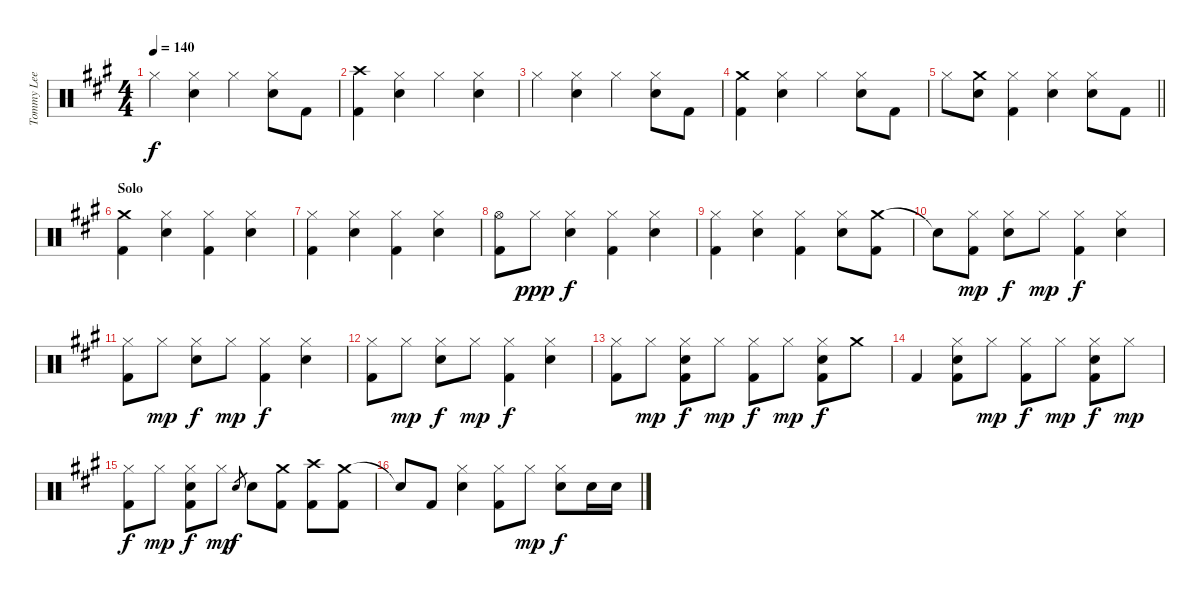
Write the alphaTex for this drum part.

\track ("Tommy Lee - Drums" "Tommy Lee ") {instrument percussion}
\staff {score}
\articulation defaults
\ts (4 4)
\tempo 140
\clef neutral
\ks a "Hi-Hat (closed)".4{dy f}
("Hi-Hat (closed)" "Snare (hit) 2").4 "Hi-Hat (closed)".4 ("Hi-Hat (closed)" "Snare (hit) 2").8 "Kick (hit) 2".8 |
("Crash high (hit)" "Kick (hit) 2").4 ("Hi-Hat (closed)" "Snare (hit) 2").4 "Hi-Hat (closed)".4 ("Hi-Hat (closed)" "Snare (hit) 2").4 |
"Hi-Hat (closed)".4 ("Hi-Hat (closed)" "Snare (hit) 2").4 "Hi-Hat (closed)".4 ("Hi-Hat (closed)" "Snare (hit) 2").8 "Kick (hit) 2".8 |
("Crash medium (hit)" "Kick (hit) 2").4 ("Hi-Hat (closed)" "Snare (hit) 2").4 "Hi-Hat (closed)".4 ("Hi-Hat (closed)" "Snare (hit) 2").8 "Kick (hit) 2".8 |
\barLineRight lightlight "Hi-Hat (closed)".8
("Crash medium (hit)" "Snare (hit) 2").8 ("Hi-Hat (closed)" "Kick (hit) 2").4 ("Hi-Hat (closed)" "Snare (hit) 2").4 ("Hi-Hat (closed)" "Snare (hit) 2").8 "Kick (hit) 2".8 |
\section ("" "Solo")
("Crash medium (hit)" "Kick (hit) 2").4 ("Hi-Hat (closed)" "Snare (hit) 2").4 ("Hi-Hat (closed)" "Kick (hit) 2").4 ("Hi-Hat (closed)" "Snare (hit) 2").4 |
("Hi-Hat (closed)" "Kick (hit) 2").4 ("Hi-Hat (closed)" "Snare (hit) 2").4 ("Hi-Hat (closed)" "Kick (hit) 2").4 ("Hi-Hat (closed)" "Snare (hit) 2").4 |
("Hi-Hat (open)" "Kick (hit) 2").8 "Hi-Hat (closed)".8{dy ppp} ("Hi-Hat (closed)" "Snare (hit) 2").4{dy f} ("Hi-Hat (closed)" "Kick (hit) 2").4 ("Hi-Hat (closed)" "Snare (hit) 2").4 |
("Hi-Hat (closed)" "Kick (hit) 2").4 ("Hi-Hat (closed)" "Snare (hit) 2").4 ("Hi-Hat (closed)" "Kick (hit) 2").4 ("Hi-Hat (closed)" "Snare (hit) 2").8 ("Crash medium (hit)" "Kick (hit) 2").8 |
"Snare (hit)"{t}.8 ("Hi-Hat (closed)" "Kick (hit) 2").8{dy mp} ("Hi-Hat (closed)" "Snare (hit) 2").8{dy f} "Hi-Hat (closed)".8{dy mp} ("Hi-Hat (closed)" "Kick (hit) 2").4{dy f} ("Hi-Hat (closed)" "Snare (hit) 2").4 |
("Hi-Hat (closed)" "Kick (hit) 2").8 "Hi-Hat (closed)".8{dy mp} ("Hi-Hat (closed)" "Snare (hit) 2").8{dy f} "Hi-Hat (closed)".8{dy mp} ("Hi-Hat (closed)" "Kick (hit) 2").4{dy f} ("Hi-Hat (closed)" "Snare (hit) 2").4 |
("Hi-Hat (closed)" "Kick (hit) 2").8 "Hi-Hat (closed)".8{dy mp} ("Hi-Hat (closed)" "Snare (hit) 2").8{dy f} "Hi-Hat (closed)".8{dy mp} ("Hi-Hat (closed)" "Kick (hit) 2").4{dy f} ("Hi-Hat (closed)" "Snare (hit) 2").4 |
("Hi-Hat (closed)" "Kick (hit) 2").8 "Hi-Hat (closed)".8{dy mp} ("Hi-Hat (closed)" "Snare (hit) 2" "Kick (hit) 2").8{dy f} "Hi-Hat (closed)".8{dy mp} ("Hi-Hat (closed)" "Kick (hit) 2").8{dy f} "Hi-Hat (closed)".8{dy mp} ("Hi-Hat (closed)" "Snare (hit) 2" "Kick (hit) 2").8{dy f} "Crash medium (hit)".8 |
"Kick (hit) 2".4 ("Hi-Hat (closed)" "Snare (hit) 2" "Kick (hit) 2").8 "Hi-Hat (closed)".8{dy mp} ("Hi-Hat (closed)" "Kick (hit) 2").8{dy f} "Hi-Hat (closed)".8{dy mp} ("Hi-Hat (closed)" "Snare (hit) 2" "Kick (hit) 2").8{dy f} "Hi-Hat (closed)".8{dy mp} |
("Hi-Hat (closed)" "Kick (hit) 2").8{dy f} "Hi-Hat (closed)".8{dy mp} ("Hi-Hat (closed)" "Snare (hit) 2" "Kick (hit) 2").8{dy f} "Hi-Hat (closed)".8{dy mp} "Snare (hit) 2".8{gr dy f} "Snare (hit) 2".8 ("Crash medium (hit)" "Kick (hit) 2").8 ("Crash high (hit)" "Kick (hit) 2").8 ("Crash medium (hit)" "Kick (hit) 2").8 |
"Snare (hit)"{t}.8 "Kick (hit) 2".8 ("Hi-Hat (closed)" "Snare (hit) 2").4 ("Hi-Hat (closed)" "Kick (hit) 2").8 "Hi-Hat (closed)".8{dy mp} ("Hi-Hat (closed)" "Snare (hit) 2").8{dy f} "Snare (hit) 2".16 "Snare (hit) 2".16
